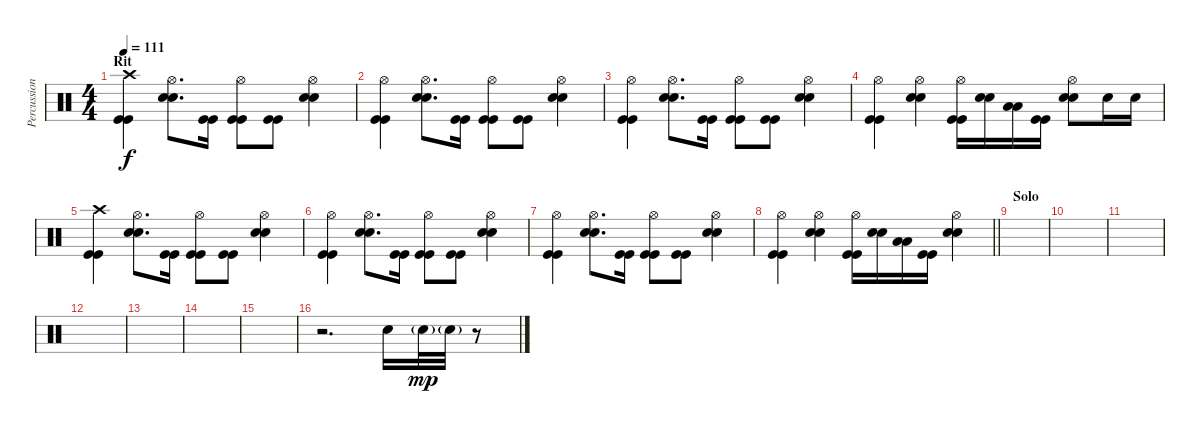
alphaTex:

\track ("Percussioni" "Percussion") {instrument percussion}
\staff {score}
\articulation defaults
\ts (4 4)
\section ("" "Rit")
\tempo 111
\clef neutral
\ks c
("Crash high (hit)" "Kick (hit)" "Kick (hit)").4{dy f} ("Hi-Hat (open)" "Snare (hit) 2" "Snare (hit) 2").8{d} ("Kick (hit)" "Kick (hit)").16 ("Hi-Hat (open)" "Kick (hit)" "Kick (hit)").8 ("Kick (hit)" "Kick (hit)").8 ("Hi-Hat (open)" "Snare (hit) 2" "Snare (hit) 2").4 |
("Hi-Hat (open)" "Kick (hit)" "Kick (hit)").4 ("Hi-Hat (open)" "Snare (hit) 2" "Snare (hit) 2").8{d} ("Kick (hit)" "Kick (hit)").16 ("Hi-Hat (open)" "Kick (hit)" "Kick (hit)").8 ("Kick (hit)" "Kick (hit)").8 ("Hi-Hat (open)" "Snare (hit) 2" "Snare (hit) 2").4 |
("Hi-Hat (open)" "Kick (hit)" "Kick (hit)").4 ("Hi-Hat (open)" "Snare (hit) 2" "Snare (hit) 2").8{d} ("Kick (hit)" "Kick (hit)").16 ("Hi-Hat (open)" "Kick (hit)" "Kick (hit)").8 ("Kick (hit)" "Kick (hit)").8 ("Hi-Hat (open)" "Snare (hit) 2" "Snare (hit) 2").4 |
("Hi-Hat (open)" "Kick (hit)" "Kick (hit)").4 ("Hi-Hat (open)" "Snare (hit) 2" "Snare (hit) 2").4 ("Hi-Hat (open)" "Kick (hit)" "Kick (hit)").16 ("Snare (hit) 2" "Snare (hit) 2").16 ("Low Tom (hit)" "Low Tom (hit)").16 ("Kick (hit)" "Kick (hit)").16 ("Hi-Hat (open)" "Snare (hit) 2" "Snare (hit) 2").8 "Snare (hit) 2".16 "Snare (hit) 2".16 |
("Crash high (hit)" "Kick (hit)" "Kick (hit)").4 ("Hi-Hat (open)" "Snare (hit) 2" "Snare (hit) 2").8{d} ("Kick (hit)" "Kick (hit)").16 ("Hi-Hat (open)" "Kick (hit)" "Kick (hit)").8 ("Kick (hit)" "Kick (hit)").8 ("Hi-Hat (open)" "Snare (hit) 2" "Snare (hit) 2").4 |
("Hi-Hat (open)" "Kick (hit)" "Kick (hit)").4 ("Hi-Hat (open)" "Snare (hit) 2" "Snare (hit) 2").8{d} ("Kick (hit)" "Kick (hit)").16 ("Hi-Hat (open)" "Kick (hit)" "Kick (hit)").8 ("Kick (hit)" "Kick (hit)").8 ("Hi-Hat (open)" "Snare (hit) 2" "Snare (hit) 2").4 |
("Hi-Hat (open)" "Kick (hit)" "Kick (hit)").4 ("Hi-Hat (open)" "Snare (hit) 2" "Snare (hit) 2").8{d} ("Kick (hit)" "Kick (hit)").16 ("Hi-Hat (open)" "Kick (hit)" "Kick (hit)").8 ("Kick (hit)" "Kick (hit)").8 ("Hi-Hat (open)" "Snare (hit) 2" "Snare (hit) 2").4 |
\barLineRight lightlight
("Hi-Hat (open)" "Kick (hit)" "Kick (hit)").4 ("Hi-Hat (open)" "Snare (hit) 2" "Snare (hit) 2").4 ("Hi-Hat (open)" "Kick (hit)" "Kick (hit)").16 ("Snare (hit) 2" "Snare (hit) 2").16 ("Low Tom (hit)" "Low Tom (hit)").16 ("Kick (hit)" "Kick (hit)").16 ("Hi-Hat (open)" "Snare (hit) 2" "Snare (hit) 2").4 |
\section ("" "Solo")
|
|
|
|
|
|
|
r.2{d} "Snare (hit) 2".16 "Snare (hit) 2"{g}.32{dy mp} "Snare (hit) 2"{g}.32 r.8
